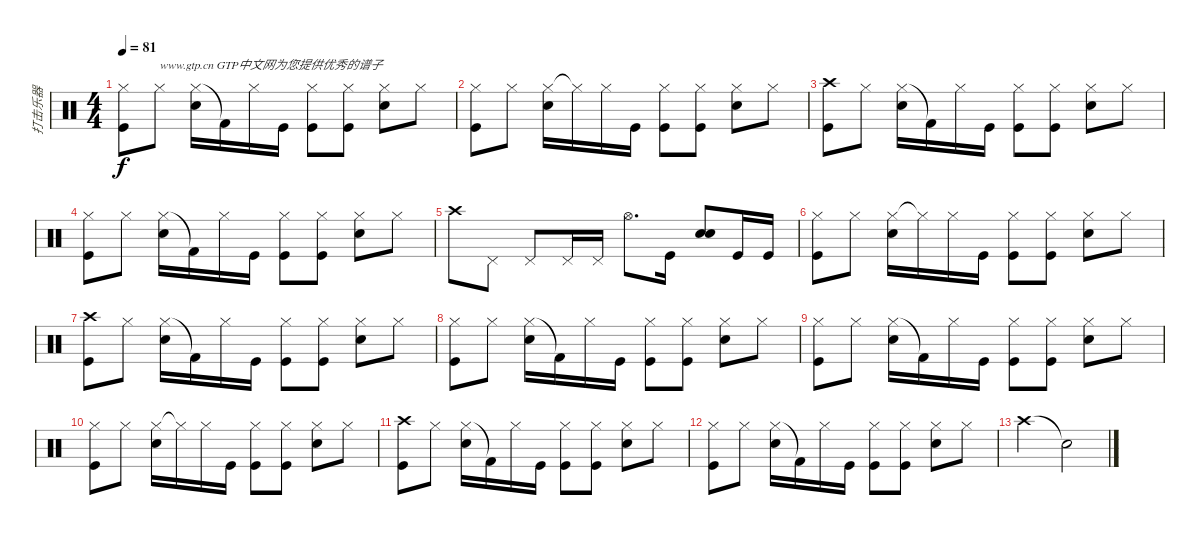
\track ("打击乐器" "打击乐器") {instrument percussion}
\staff {score}
\articulation defaults
\ts (4 4)
\tempo 81
\clef neutral
\ks c
("Hi-Hat (closed)" "Kick (hit)").8{dy f} "Hi-Hat (closed)".8{txt "www.gtp.cn GTP中文网为您提供优秀的谱子"} ("Hi-Hat (closed)" "Electric Snare (hit)").16 "Kick (hit) 2"{t}.16 "Hi-Hat (closed)".16 "Kick (hit)".16 ("Hi-Hat (closed)" "Kick (hit)").8 ("Hi-Hat (closed)" "Kick (hit)").8 ("Hi-Hat (closed)" "Electric Snare (hit)").8 "Hi-Hat (closed)".8 |
("Hi-Hat (closed)" "Kick (hit)").8 "Hi-Hat (closed)".8 ("Hi-Hat (closed)" "Electric Snare (hit)").16 "Hi-Hat (closed)"{t}.16 "Hi-Hat (closed)".16 "Kick (hit)".16 ("Hi-Hat (closed)" "Kick (hit)").8 ("Hi-Hat (closed)" "Kick (hit)").8 ("Hi-Hat (closed)" "Electric Snare (hit)").8 "Hi-Hat (closed)".8 |
("Crash high (hit)" "Kick (hit)").8 "Hi-Hat (closed)".8 ("Hi-Hat (closed)" "Electric Snare (hit)").16 "Kick (hit) 2"{t}.16 "Hi-Hat (closed)".16 "Kick (hit)".16 ("Hi-Hat (closed)" "Kick (hit)").8 ("Hi-Hat (closed)" "Kick (hit)").8 ("Hi-Hat (closed)" "Electric Snare (hit)").8 "Hi-Hat (closed)".8 |
("Hi-Hat (closed)" "Kick (hit)").8 "Hi-Hat (closed)".8 ("Hi-Hat (closed)" "Electric Snare (hit)").16 "Kick (hit) 2"{t}.16 "Hi-Hat (closed)".16 "Kick (hit)".16 ("Hi-Hat (closed)" "Kick (hit)").8 ("Hi-Hat (closed)" "Kick (hit)").8 ("Hi-Hat (closed)" "Electric Snare (hit)").8 "Hi-Hat (closed)".8 |
"Crash high (hit)".8 "Pedal Hi-Hat (hit)".8 "Pedal Hi-Hat (hit)".8 "Pedal Hi-Hat (hit)".16 "Pedal Hi-Hat (hit)".16 "Hi-Hat (open)".8{d} "Kick (hit)".16 ("Electric Snare (hit)" "Snare (hit) 2").8 "Kick (hit)".16 "Kick (hit)".16 |
("Hi-Hat (closed)" "Kick (hit)").8 "Hi-Hat (closed)".8 ("Hi-Hat (closed)" "Electric Snare (hit)").16 "Hi-Hat (closed)"{t}.16 "Hi-Hat (closed)".16 "Kick (hit)".16 ("Hi-Hat (closed)" "Kick (hit)").8 ("Hi-Hat (closed)" "Kick (hit)").8 ("Hi-Hat (closed)" "Electric Snare (hit)").8 "Hi-Hat (closed)".8 |
("Crash high (hit)" "Kick (hit)").8 "Hi-Hat (closed)".8 ("Hi-Hat (closed)" "Electric Snare (hit)").16 "Kick (hit) 2"{t}.16 "Hi-Hat (closed)".16 "Kick (hit)".16 ("Hi-Hat (closed)" "Kick (hit)").8 ("Hi-Hat (closed)" "Kick (hit)").8 ("Hi-Hat (closed)" "Electric Snare (hit)").8 "Hi-Hat (closed)".8 |
("Hi-Hat (closed)" "Kick (hit)").8 "Hi-Hat (closed)".8 ("Hi-Hat (closed)" "Electric Snare (hit)").16 "Kick (hit) 2"{t}.16 "Hi-Hat (closed)".16 "Kick (hit)".16 ("Hi-Hat (closed)" "Kick (hit)").8 ("Hi-Hat (closed)" "Kick (hit)").8 ("Hi-Hat (closed)" "Electric Snare (hit)").8 "Hi-Hat (closed)".8 |
("Hi-Hat (closed)" "Kick (hit)").8 "Hi-Hat (closed)".8 ("Hi-Hat (closed)" "Electric Snare (hit)").16 "Kick (hit) 2"{t}.16 "Hi-Hat (closed)".16 "Kick (hit)".16 ("Hi-Hat (closed)" "Kick (hit)").8 ("Hi-Hat (closed)" "Kick (hit)").8 ("Hi-Hat (closed)" "Electric Snare (hit)").8 "Hi-Hat (closed)".8 |
("Hi-Hat (closed)" "Kick (hit)").8 "Hi-Hat (closed)".8 ("Hi-Hat (closed)" "Electric Snare (hit)").16 "Hi-Hat (closed)"{t}.16 "Hi-Hat (closed)".16 "Kick (hit)".16 ("Hi-Hat (closed)" "Kick (hit)").8 ("Hi-Hat (closed)" "Kick (hit)").8 ("Hi-Hat (closed)" "Electric Snare (hit)").8 "Hi-Hat (closed)".8 |
("Crash high (hit)" "Kick (hit)").8 "Hi-Hat (closed)".8 ("Hi-Hat (closed)" "Electric Snare (hit)").16 "Kick (hit) 2"{t}.16 "Hi-Hat (closed)".16 "Kick (hit)".16 ("Hi-Hat (closed)" "Kick (hit)").8 ("Hi-Hat (closed)" "Kick (hit)").8 ("Hi-Hat (closed)" "Electric Snare (hit)").8 "Hi-Hat (closed)".8 |
("Hi-Hat (closed)" "Kick (hit)").8 "Hi-Hat (closed)".8 ("Hi-Hat (closed)" "Electric Snare (hit)").16 "Kick (hit) 2"{t}.16 "Hi-Hat (closed)".16 "Kick (hit)".16 ("Hi-Hat (closed)" "Kick (hit)").8 ("Hi-Hat (closed)" "Kick (hit)").8 ("Hi-Hat (closed)" "Electric Snare (hit)").8 "Hi-Hat (closed)".8 |
"Crash high (hit)".2 "Snare (hit)"{t}.2
